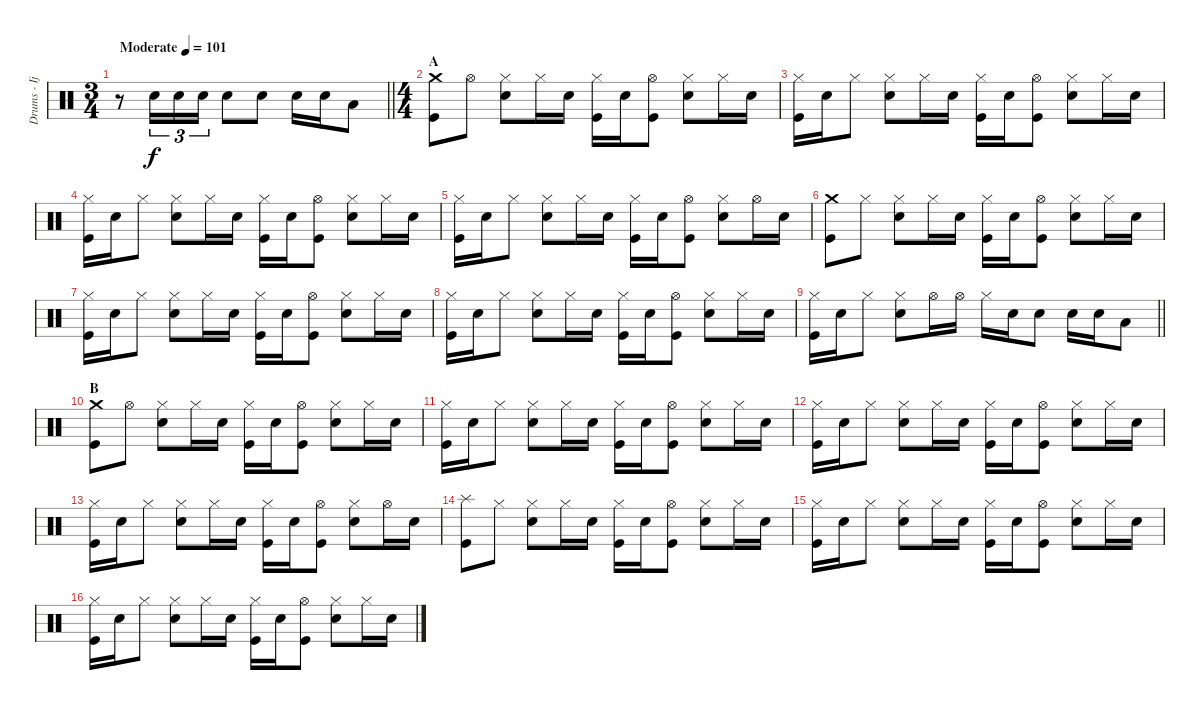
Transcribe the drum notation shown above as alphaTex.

\track ("Drums - Ijichi" "Drums - Ij") {instrument percussion}
\staff {score}
\articulation defaults
\ts (3 4)
\tempo (101 "Moderate")
\clef neutral
\barLineRight lightlight
\ks c
r.8{dy f} "Electric Snare (hit)".16{tu (3 2)} "Electric Snare (hit)".16{tu (3 2)} "Electric Snare (hit)".16{tu (3 2)} "Electric Snare (hit)".8 "Electric Snare (hit)".8 "Electric Snare (hit)".16 "Electric Snare (hit)".16 "Low Tom (hit)".8 |
\ts (4 4)
\section ("" "A")
("Crash medium (hit)" "Kick (hit)").8 "Hi-Hat (open)".8 ("Hi-Hat (closed)" "Electric Snare (hit)").8 "Hi-Hat (closed)".16 "Electric Snare (hit)".16 ("Hi-Hat (closed)" "Kick (hit)").16 "Electric Snare (hit)".16 ("Hi-Hat (open)" "Kick (hit)").8 ("Hi-Hat (closed)" "Electric Snare (hit)").8 "Hi-Hat (closed)".16 "Electric Snare (hit)".16 |
("Hi-Hat (closed)" "Kick (hit)").16 "Electric Snare (hit)".16 "Hi-Hat (closed)".8 ("Hi-Hat (closed)" "Electric Snare (hit)").8 "Hi-Hat (closed)".16 "Electric Snare (hit)".16 ("Hi-Hat (closed)" "Kick (hit)").16 "Electric Snare (hit)".16 ("Hi-Hat (open)" "Kick (hit)").8 ("Hi-Hat (closed)" "Electric Snare (hit)").8 "Hi-Hat (closed)".16 "Electric Snare (hit)".16 |
("Hi-Hat (closed)" "Kick (hit)").16 "Electric Snare (hit)".16 "Hi-Hat (closed)".8 ("Hi-Hat (closed)" "Electric Snare (hit)").8 "Hi-Hat (closed)".16 "Electric Snare (hit)".16 ("Hi-Hat (closed)" "Kick (hit)").16 "Electric Snare (hit)".16 ("Hi-Hat (open)" "Kick (hit)").8 ("Hi-Hat (closed)" "Electric Snare (hit)").8 "Hi-Hat (closed)".16 "Electric Snare (hit)".16 |
("Hi-Hat (closed)" "Kick (hit)").16 "Electric Snare (hit)".16 "Hi-Hat (closed)".8 ("Hi-Hat (closed)" "Electric Snare (hit)").8 "Hi-Hat (closed)".16 "Electric Snare (hit)".16 ("Hi-Hat (closed)" "Kick (hit)").16 "Electric Snare (hit)".16 ("Hi-Hat (open)" "Kick (hit)").8 ("Hi-Hat (closed)" "Electric Snare (hit)").8 "Hi-Hat (open)".16 "Electric Snare (hit)".16 |
("Crash medium (hit)" "Kick (hit)").8 "Hi-Hat (closed)".8 ("Hi-Hat (closed)" "Electric Snare (hit)").8 "Hi-Hat (closed)".16 "Electric Snare (hit)".16 ("Hi-Hat (closed)" "Kick (hit)").16 "Electric Snare (hit)".16 ("Hi-Hat (open)" "Kick (hit)").8 ("Hi-Hat (closed)" "Electric Snare (hit)").8 "Hi-Hat (closed)".16 "Electric Snare (hit)".16 |
("Hi-Hat (closed)" "Kick (hit)").16 "Electric Snare (hit)".16 "Hi-Hat (closed)".8 ("Hi-Hat (closed)" "Electric Snare (hit)").8 "Hi-Hat (closed)".16 "Electric Snare (hit)".16 ("Hi-Hat (closed)" "Kick (hit)").16 "Electric Snare (hit)".16 ("Hi-Hat (open)" "Kick (hit)").8 ("Hi-Hat (closed)" "Electric Snare (hit)").8 "Hi-Hat (closed)".16 "Electric Snare (hit)".16 |
("Hi-Hat (closed)" "Kick (hit)").16 "Electric Snare (hit)".16 "Hi-Hat (closed)".8 ("Hi-Hat (closed)" "Electric Snare (hit)").8 "Hi-Hat (closed)".16 "Electric Snare (hit)".16 ("Hi-Hat (closed)" "Kick (hit)").16 "Electric Snare (hit)".16 ("Hi-Hat (open)" "Kick (hit)").8 ("Hi-Hat (closed)" "Electric Snare (hit)").8 "Hi-Hat (closed)".16 "Electric Snare (hit)".16 |
\barLineRight lightlight
("Hi-Hat (closed)" "Kick (hit)").16 "Electric Snare (hit)".16 "Hi-Hat (closed)".8 ("Hi-Hat (closed)" "Electric Snare (hit)").8 "Hi-Hat (open)".16 "Hi-Hat (open)".16 "Hi-Hat (closed)".16 "Electric Snare (hit)".16 "Electric Snare (hit)".8 "Electric Snare (hit)".16 "Electric Snare (hit)".16 "Low Tom (hit)".8 |
\section ("" "B")
("Crash medium (hit)" "Kick (hit)").8 "Hi-Hat (open)".8 ("Hi-Hat (closed)" "Electric Snare (hit)").8 "Hi-Hat (closed)".16 "Electric Snare (hit)".16 ("Hi-Hat (closed)" "Kick (hit)").16 "Electric Snare (hit)".16 ("Hi-Hat (open)" "Kick (hit)").8 ("Hi-Hat (closed)" "Electric Snare (hit)").8 "Hi-Hat (closed)".16 "Electric Snare (hit)".16 |
("Hi-Hat (closed)" "Kick (hit)").16 "Electric Snare (hit)".16 "Hi-Hat (closed)".8 ("Hi-Hat (closed)" "Electric Snare (hit)").8 "Hi-Hat (closed)".16 "Electric Snare (hit)".16 ("Hi-Hat (closed)" "Kick (hit)").16 "Electric Snare (hit)".16 ("Hi-Hat (open)" "Kick (hit)").8 ("Hi-Hat (closed)" "Electric Snare (hit)").8 "Hi-Hat (closed)".16 "Electric Snare (hit)".16 |
("Hi-Hat (closed)" "Kick (hit)").16 "Electric Snare (hit)".16 "Hi-Hat (closed)".8 ("Hi-Hat (closed)" "Electric Snare (hit)").8 "Hi-Hat (closed)".16 "Electric Snare (hit)".16 ("Hi-Hat (closed)" "Kick (hit)").16 "Electric Snare (hit)".16 ("Hi-Hat (open)" "Kick (hit)").8 ("Hi-Hat (closed)" "Electric Snare (hit)").8 "Hi-Hat (closed)".16 "Electric Snare (hit)".16 |
("Hi-Hat (closed)" "Kick (hit)").16 "Electric Snare (hit)".16 "Hi-Hat (closed)".8 ("Hi-Hat (closed)" "Electric Snare (hit)").8 "Hi-Hat (closed)".16 "Electric Snare (hit)".16 ("Hi-Hat (closed)" "Kick (hit)").16 "Electric Snare (hit)".16 ("Hi-Hat (open)" "Kick (hit)").8 ("Hi-Hat (closed)" "Electric Snare (hit)").8 "Hi-Hat (open)".16 "Electric Snare (hit)".16 |
("Splash (hit)" "Kick (hit)").8 "Hi-Hat (closed)".8 ("Hi-Hat (closed)" "Electric Snare (hit)").8 "Hi-Hat (closed)".16 "Electric Snare (hit)".16 ("Hi-Hat (closed)" "Kick (hit)").16 "Electric Snare (hit)".16 ("Hi-Hat (open)" "Kick (hit)").8 ("Hi-Hat (closed)" "Electric Snare (hit)").8 "Hi-Hat (closed)".16 "Electric Snare (hit)".16 |
("Hi-Hat (closed)" "Kick (hit)").16 "Electric Snare (hit)".16 "Hi-Hat (closed)".8 ("Hi-Hat (closed)" "Electric Snare (hit)").8 "Hi-Hat (closed)".16 "Electric Snare (hit)".16 ("Hi-Hat (closed)" "Kick (hit)").16 "Electric Snare (hit)".16 ("Hi-Hat (open)" "Kick (hit)").8 ("Hi-Hat (closed)" "Electric Snare (hit)").8 "Hi-Hat (closed)".16 "Electric Snare (hit)".16 |
("Hi-Hat (closed)" "Kick (hit)").16 "Electric Snare (hit)".16 "Hi-Hat (closed)".8 ("Hi-Hat (closed)" "Electric Snare (hit)").8 "Hi-Hat (closed)".16 "Electric Snare (hit)".16 ("Hi-Hat (closed)" "Kick (hit)").16 "Electric Snare (hit)".16 ("Hi-Hat (open)" "Kick (hit)").8 ("Hi-Hat (closed)" "Electric Snare (hit)").8 "Hi-Hat (closed)".16 "Electric Snare (hit)".16
